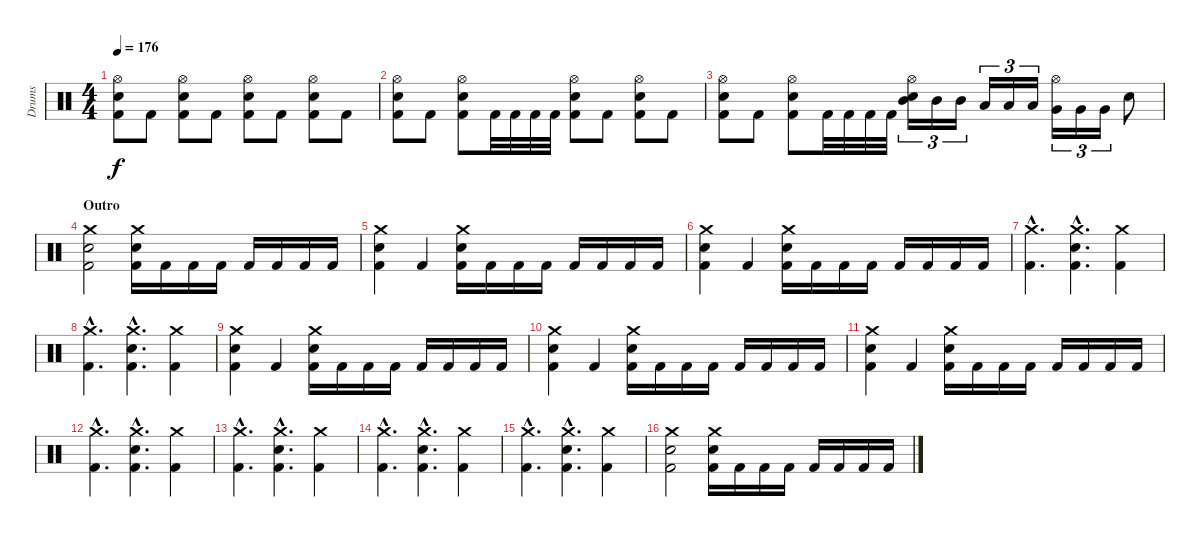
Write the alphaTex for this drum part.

\track ("Drums" "Drums") {instrument percussion}
\staff {score}
\articulation defaults
\ts (4 4)
\tempo 176
\clef neutral
\ks c
("Hi-Hat (open)" "Snare (hit) 2" "Kick (hit) 2").8{dy f} "Kick (hit) 2".8 ("Hi-Hat (open)" "Snare (hit) 2" "Kick (hit) 2").8 "Kick (hit) 2".8 ("Hi-Hat (open)" "Snare (hit) 2" "Kick (hit) 2").8 "Kick (hit) 2".8 ("Hi-Hat (open)" "Snare (hit) 2" "Kick (hit) 2").8 "Kick (hit) 2".8 |
("Hi-Hat (open)" "Snare (hit) 2" "Kick (hit) 2").8 "Kick (hit) 2".8 ("Hi-Hat (open)" "Snare (hit) 2" "Kick (hit) 2").8 "Kick (hit) 2".32 "Kick (hit) 2".32 "Kick (hit) 2".32 "Kick (hit) 2".32 ("Hi-Hat (open)" "Snare (hit) 2" "Kick (hit) 2").8 "Kick (hit) 2".8 ("Hi-Hat (open)" "Snare (hit) 2" "Kick (hit) 2").8 "Kick (hit) 2".8 |
("Hi-Hat (open)" "Snare (hit) 2" "Kick (hit) 2").8 "Kick (hit) 2".8 ("Hi-Hat (open)" "Snare (hit) 2" "Kick (hit) 2").8 "Kick (hit) 2".32 "Kick (hit) 2".32 "Kick (hit) 2".32 "Kick (hit) 2".32 ("Hi-Hat (open)" "Mid Tom (hit)" "Snare (hit) 2").16{tu (3 2)} "Mid Tom (hit)".16{tu (3 2)} "Mid Tom (hit)".16{tu (3 2)} "Low Tom (hit)".16{tu (3 2)} "Low Tom (hit)".16{tu (3 2)} "Low Tom (hit)".16{tu (3 2)} ("Hi-Hat (open)" "Very Low Tom (hit)").16{tu (3 2)} "Very Low Tom (hit)".16{tu (3 2)} "Very Low Tom (hit)".16{tu (3 2)} "Snare (hit) 2".8 |
\section ("" "Outro")
("Crash medium (hit)" "Snare (hit) 2" "Kick (hit) 2").2 ("Crash medium (hit)" "Snare (hit) 2" "Kick (hit) 2").16 "Kick (hit) 2".16 "Kick (hit) 2".16 "Kick (hit) 2".16 "Kick (hit) 2".16 "Kick (hit) 2".16 "Kick (hit) 2".16 "Kick (hit) 2".16 |
("Crash medium (hit)" "Snare (hit) 2" "Kick (hit) 2").4 "Kick (hit) 2".4 ("Crash medium (hit)" "Snare (hit) 2" "Kick (hit) 2").16 "Kick (hit) 2".16 "Kick (hit) 2".16 "Kick (hit) 2".16 "Kick (hit) 2".16 "Kick (hit) 2".16 "Kick (hit) 2".16 "Kick (hit) 2".16 |
("Crash medium (hit)" "Snare (hit) 2" "Kick (hit) 2").4 "Kick (hit) 2".4 ("Crash medium (hit)" "Snare (hit) 2" "Kick (hit) 2").16 "Kick (hit) 2".16 "Kick (hit) 2".16 "Kick (hit) 2".16 "Kick (hit) 2".16 "Kick (hit) 2".16 "Kick (hit) 2".16 "Kick (hit) 2".16 |
("Crash medium (hit)"{hac} "Kick (hit) 2"{hac}).4{d} ("Crash medium (hit)"{hac} "Snare (hit) 2"{hac} "Kick (hit) 2"{hac}).4{d} ("Crash medium (hit)" "Kick (hit) 2").4 |
("Crash medium (hit)"{hac} "Kick (hit) 2"{hac}).4{d} ("Crash medium (hit)"{hac} "Snare (hit) 2"{hac} "Kick (hit) 2"{hac}).4{d} ("Crash medium (hit)" "Kick (hit) 2").4 |
("Crash medium (hit)" "Snare (hit) 2" "Kick (hit) 2").4 "Kick (hit) 2".4 ("Crash medium (hit)" "Snare (hit) 2" "Kick (hit) 2").16 "Kick (hit) 2".16 "Kick (hit) 2".16 "Kick (hit) 2".16 "Kick (hit) 2".16 "Kick (hit) 2".16 "Kick (hit) 2".16 "Kick (hit) 2".16 |
("Crash medium (hit)" "Snare (hit) 2" "Kick (hit) 2").4 "Kick (hit) 2".4 ("Crash medium (hit)" "Snare (hit) 2" "Kick (hit) 2").16 "Kick (hit) 2".16 "Kick (hit) 2".16 "Kick (hit) 2".16 "Kick (hit) 2".16 "Kick (hit) 2".16 "Kick (hit) 2".16 "Kick (hit) 2".16 |
("Crash medium (hit)" "Snare (hit) 2" "Kick (hit) 2").4 "Kick (hit) 2".4 ("Crash medium (hit)" "Snare (hit) 2" "Kick (hit) 2").16 "Kick (hit) 2".16 "Kick (hit) 2".16 "Kick (hit) 2".16 "Kick (hit) 2".16 "Kick (hit) 2".16 "Kick (hit) 2".16 "Kick (hit) 2".16 |
("Crash medium (hit)"{hac} "Kick (hit) 2"{hac}).4{d} ("Crash medium (hit)"{hac} "Snare (hit) 2"{hac} "Kick (hit) 2"{hac}).4{d} ("Crash medium (hit)" "Kick (hit) 2").4 |
("Crash medium (hit)"{hac} "Kick (hit) 2"{hac}).4{d} ("Crash medium (hit)"{hac} "Snare (hit) 2"{hac} "Kick (hit) 2"{hac}).4{d} ("Crash medium (hit)" "Kick (hit) 2").4 |
("Crash medium (hit)"{hac} "Kick (hit) 2"{hac}).4{d} ("Crash medium (hit)"{hac} "Snare (hit) 2"{hac} "Kick (hit) 2"{hac}).4{d} ("Crash medium (hit)" "Kick (hit) 2").4 |
("Crash medium (hit)"{hac} "Kick (hit) 2"{hac}).4{d} ("Crash medium (hit)"{hac} "Snare (hit) 2"{hac} "Kick (hit) 2"{hac}).4{d} ("Crash medium (hit)" "Kick (hit) 2").4 |
("Crash medium (hit)" "Snare (hit) 2" "Kick (hit) 2").2 ("Crash medium (hit)" "Snare (hit) 2" "Kick (hit) 2").16 "Kick (hit) 2".16 "Kick (hit) 2".16 "Kick (hit) 2".16 "Kick (hit) 2".16 "Kick (hit) 2".16 "Kick (hit) 2".16 "Kick (hit) 2".16
